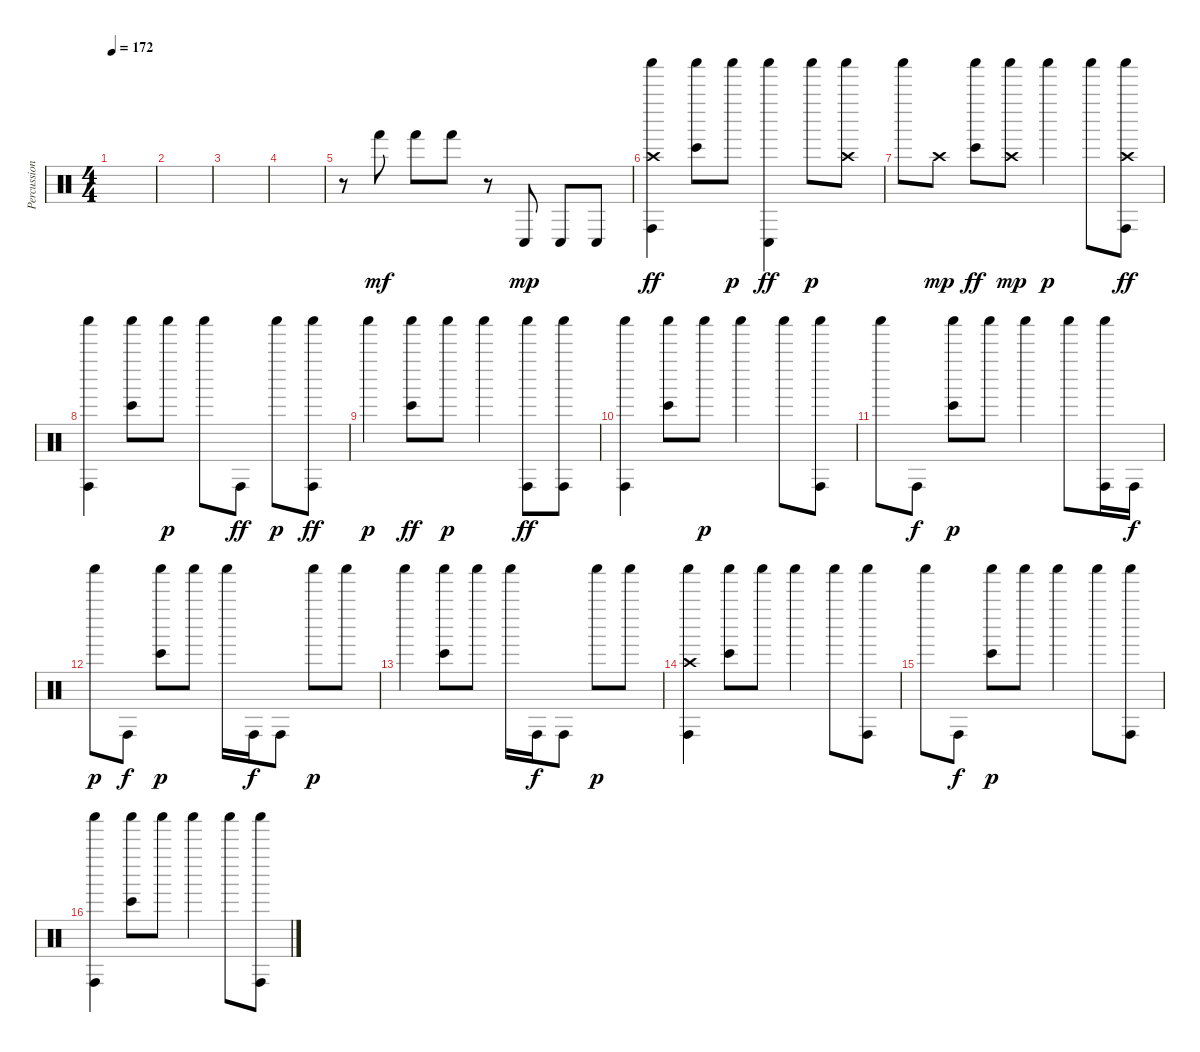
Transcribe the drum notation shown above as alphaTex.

\track ("Percussion" "Percussion") {instrument percussion}
\staff {score}
\articulation defaults
\ts (4 4)
\tempo 172
\clef neutral
\ks c
|
|
|
|
r.8 "Hand (hit)".8{dy mf} "Hand (hit)".8 "Hand (hit)".8 r.8 "Conga low (hit)".8{dy mp} "Conga low (hit)".8 "Conga low (hit)".8 |
("Shaker (hit)" "Crash high (hit)" "Conga high (hit)").4{dy ff} ("Shaker (hit)" "Bongo High (hit)").8 "Shaker (hit)".8{dy p} ("Shaker (hit)" "Conga low (hit)").4{dy ff} "Shaker (hit)".8{dy p} ("Shaker (hit)" "Crash high (hit)").8 |
"Shaker (hit)".8 "Crash high (hit)".8{dy mp} ("Shaker (hit)" "Bongo High (hit)").8{dy ff} ("Shaker (hit)" "Crash high (hit)").8{dy mp} "Shaker (hit)".4{dy p} "Shaker (hit)".8 ("Shaker (hit)" "Crash high (hit)" "Conga high (hit)").8{dy ff} |
("Shaker (hit)" "Conga high (hit)").4 ("Shaker (hit)" "Bongo High (hit)").8 "Shaker (hit)".8{dy p} "Shaker (hit)".8 "Conga high (hit)".8{dy ff} "Shaker (hit)".8{dy p} ("Shaker (hit)" "Conga high (hit)").8{dy ff} |
"Shaker (hit)".4{dy p} ("Shaker (hit)" "Bongo High (hit)").8{dy ff} "Shaker (hit)".8{dy p} "Shaker (hit)".4 ("Shaker (hit)" "Conga high (hit)").8{dy ff} ("Shaker (hit)" "Conga high (hit)").8 |
("Shaker (hit)" "Conga high (hit)").4 ("Shaker (hit)" "Bongo High (hit)").8 "Shaker (hit)".8{dy p} "Shaker (hit)".4 "Shaker (hit)".8 ("Shaker (hit)" "Conga high (hit)").8 |
"Shaker (hit)".8 "Conga high (hit)".8{dy f} ("Shaker (hit)" "Bongo High (hit)").8{dy p} "Shaker (hit)".8 "Shaker (hit)".4 "Shaker (hit)".8 ("Shaker (hit)" "Conga high (hit)").16 "Conga high (hit)".16{dy f} |
"Shaker (hit)".8{dy p} "Conga high (hit)".8{dy f} ("Shaker (hit)" "Bongo High (hit)").8{dy p} "Shaker (hit)".8 "Shaker (hit)".16 "Conga high (hit)".16{dy f} "Conga high (hit)".8 "Shaker (hit)".8{dy p} "Shaker (hit)".8 |
"Shaker (hit)".4 ("Shaker (hit)" "Bongo High (hit)").8 "Shaker (hit)".8 "Shaker (hit)".16 "Conga high (hit)".16{dy f} "Conga high (hit)".8 "Shaker (hit)".8{dy p} "Shaker (hit)".8 |
("Shaker (hit)" "Crash high (hit)" "Conga high (hit)").4 ("Shaker (hit)" "Bongo High (hit)").8 "Shaker (hit)".8 "Shaker (hit)".4 "Shaker (hit)".8 ("Shaker (hit)" "Conga high (hit)").8 |
"Shaker (hit)".8 "Conga high (hit)".8{dy f} ("Shaker (hit)" "Bongo High (hit)").8{dy p} "Shaker (hit)".8 "Shaker (hit)".4 "Shaker (hit)".8 ("Shaker (hit)" "Conga high (hit)").8 |
("Shaker (hit)" "Conga high (hit)").4 ("Shaker (hit)" "Bongo High (hit)").8 "Shaker (hit)".8 "Shaker (hit)".4 "Shaker (hit)".8 ("Shaker (hit)" "Conga high (hit)").8
